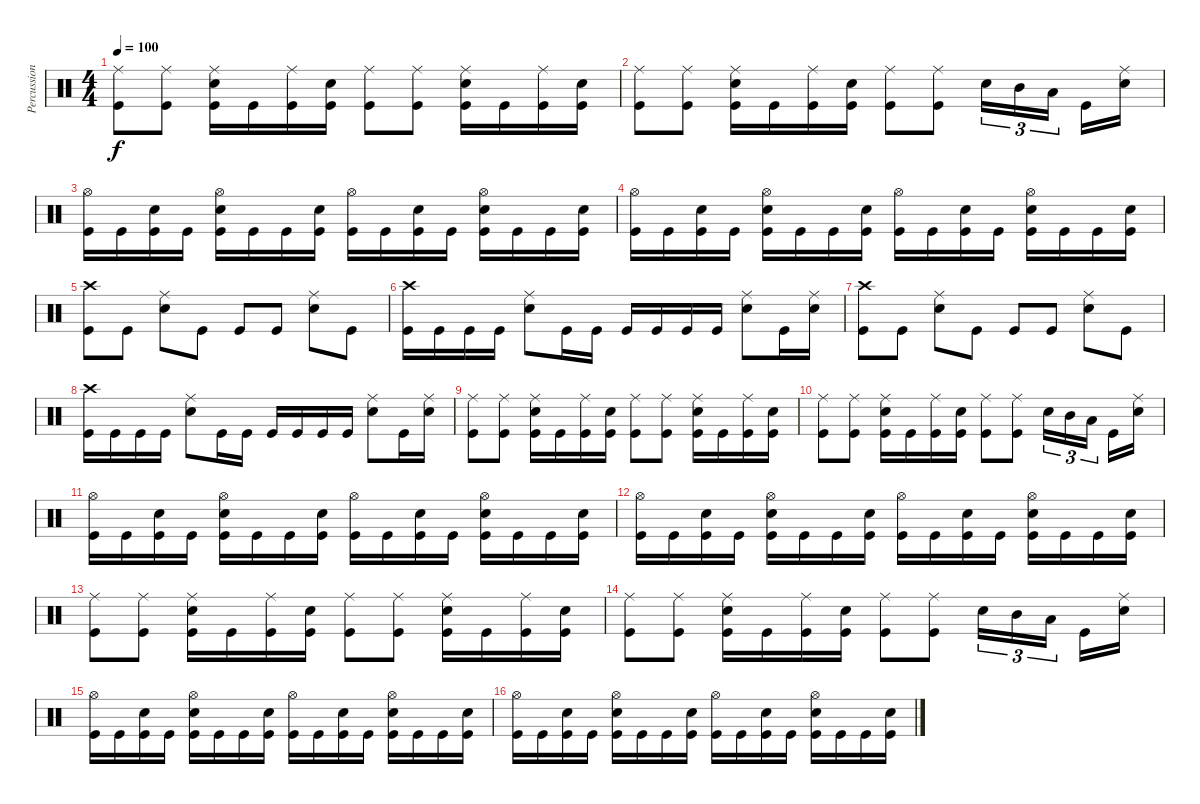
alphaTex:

\track ("Percussion" "Percussion") {instrument percussion}
\staff {score}
\articulation defaults
\ts (4 4)
\tempo 100
\clef neutral
\ks c
("Ride (middle)" "Kick (hit)").8{dy f volume 4} ("Ride (middle)" "Kick (hit)").8 ("Ride (middle)" "Electric Snare (hit)" "Kick (hit)").16 "Kick (hit)".16 ("Ride (middle)" "Kick (hit)").16 ("Electric Snare (hit)" "Kick (hit)").16 ("Ride (middle)" "Kick (hit)").8 ("Ride (middle)" "Kick (hit)").8 ("Ride (middle)" "Electric Snare (hit)" "Kick (hit)").16 "Kick (hit)".16 ("Ride (middle)" "Kick (hit)").16 ("Electric Snare (hit)" "Kick (hit)").16 |
("Ride (middle)" "Kick (hit)").8 ("Ride (middle)" "Kick (hit)").8 ("Ride (middle)" "Electric Snare (hit)" "Kick (hit)").16 "Kick (hit)".16 ("Ride (middle)" "Kick (hit)").16 ("Electric Snare (hit)" "Kick (hit)").16 ("Ride (middle)" "Kick (hit)").8 ("Ride (middle)" "Kick (hit)").8 "Electric Snare (hit)".16{tu (3 2)} "Mid Tom (hit)".16{tu (3 2)} "Low Tom (hit)".16{tu (3 2) beam splitsecondary} "Kick (hit)".16 ("Ride (middle)" "Electric Snare (hit)").16 |
("Hi-Hat (open)" "Kick (hit)").16 "Kick (hit)".16 ("Electric Snare (hit)" "Kick (hit)").16 "Kick (hit)".16 ("Hi-Hat (open)" "Electric Snare (hit)" "Kick (hit)").16 "Kick (hit)".16 "Kick (hit)".16 ("Electric Snare (hit)" "Kick (hit)").16 ("Hi-Hat (open)" "Kick (hit)").16 "Kick (hit)".16 ("Electric Snare (hit)" "Kick (hit)").16 "Kick (hit)".16 ("Hi-Hat (open)" "Electric Snare (hit)" "Kick (hit)").16 "Kick (hit)".16 "Kick (hit)".16 ("Electric Snare (hit)" "Kick (hit)").16 |
("Hi-Hat (open)" "Kick (hit)").16 "Kick (hit)".16 ("Electric Snare (hit)" "Kick (hit)").16 "Kick (hit)".16 ("Hi-Hat (open)" "Electric Snare (hit)" "Kick (hit)").16 "Kick (hit)".16 "Kick (hit)".16 ("Electric Snare (hit)" "Kick (hit)").16 ("Hi-Hat (open)" "Kick (hit)").16 "Kick (hit)".16 ("Electric Snare (hit)" "Kick (hit)").16 "Kick (hit)".16 ("Hi-Hat (open)" "Electric Snare (hit)" "Kick (hit)").16 "Kick (hit)".16 "Kick (hit)".16 ("Electric Snare (hit)" "Kick (hit)").16 |
("Crash high (hit)" "Kick (hit)").8{volume 3} "Kick (hit)".8 ("Ride (middle)" "Electric Snare (hit)").8 "Kick (hit)".8 "Kick (hit)".8 "Kick (hit)".8 ("Ride (middle)" "Electric Snare (hit)").8 "Kick (hit)".8 |
("Crash high (hit)" "Kick (hit)").16 "Kick (hit)".16 "Kick (hit)".16 "Kick (hit)".16 ("Ride (middle)" "Electric Snare (hit)").8 "Kick (hit)".16 "Kick (hit)".16 "Kick (hit)".16 "Kick (hit)".16 "Kick (hit)".16 "Kick (hit)".16 ("Ride (middle)" "Electric Snare (hit)").8 "Kick (hit)".16 ("Ride (middle)" "Electric Snare (hit)").16 |
("Crash high (hit)" "Kick (hit)").8 "Kick (hit)".8 ("Ride (middle)" "Electric Snare (hit)").8 "Kick (hit)".8 "Kick (hit)".8 "Kick (hit)".8 ("Ride (middle)" "Electric Snare (hit)").8 "Kick (hit)".8 |
("Crash high (hit)" "Kick (hit)").16 "Kick (hit)".16 "Kick (hit)".16 "Kick (hit)".16 ("Ride (middle)" "Electric Snare (hit)").8 "Kick (hit)".16 "Kick (hit)".16 "Kick (hit)".16 "Kick (hit)".16 "Kick (hit)".16 "Kick (hit)".16 ("Ride (middle)" "Electric Snare (hit)").8 "Kick (hit)".16 ("Ride (middle)" "Electric Snare (hit)").16 |
("Ride (middle)" "Kick (hit)").8{volume 2} ("Ride (middle)" "Kick (hit)").8 ("Ride (middle)" "Electric Snare (hit)" "Kick (hit)").16 "Kick (hit)".16 ("Ride (middle)" "Kick (hit)").16 ("Electric Snare (hit)" "Kick (hit)").16 ("Ride (middle)" "Kick (hit)").8 ("Ride (middle)" "Kick (hit)").8 ("Ride (middle)" "Electric Snare (hit)" "Kick (hit)").16 "Kick (hit)".16 ("Ride (middle)" "Kick (hit)").16 ("Electric Snare (hit)" "Kick (hit)").16 |
("Ride (middle)" "Kick (hit)").8 ("Ride (middle)" "Kick (hit)").8 ("Ride (middle)" "Electric Snare (hit)" "Kick (hit)").16 "Kick (hit)".16 ("Ride (middle)" "Kick (hit)").16 ("Electric Snare (hit)" "Kick (hit)").16 ("Ride (middle)" "Kick (hit)").8 ("Ride (middle)" "Kick (hit)").8 "Electric Snare (hit)".16{tu (3 2)} "Mid Tom (hit)".16{tu (3 2)} "Low Tom (hit)".16{tu (3 2) beam splitsecondary} "Kick (hit)".16 ("Ride (middle)" "Electric Snare (hit)").16 |
("Hi-Hat (open)" "Kick (hit)").16 "Kick (hit)".16 ("Electric Snare (hit)" "Kick (hit)").16 "Kick (hit)".16 ("Hi-Hat (open)" "Electric Snare (hit)" "Kick (hit)").16 "Kick (hit)".16 "Kick (hit)".16 ("Electric Snare (hit)" "Kick (hit)").16 ("Hi-Hat (open)" "Kick (hit)").16 "Kick (hit)".16 ("Electric Snare (hit)" "Kick (hit)").16 "Kick (hit)".16 ("Hi-Hat (open)" "Electric Snare (hit)" "Kick (hit)").16 "Kick (hit)".16 "Kick (hit)".16 ("Electric Snare (hit)" "Kick (hit)").16 |
("Hi-Hat (open)" "Kick (hit)").16 "Kick (hit)".16 ("Electric Snare (hit)" "Kick (hit)").16 "Kick (hit)".16 ("Hi-Hat (open)" "Electric Snare (hit)" "Kick (hit)").16 "Kick (hit)".16 "Kick (hit)".16 ("Electric Snare (hit)" "Kick (hit)").16 ("Hi-Hat (open)" "Kick (hit)").16 "Kick (hit)".16 ("Electric Snare (hit)" "Kick (hit)").16 "Kick (hit)".16 ("Hi-Hat (open)" "Electric Snare (hit)" "Kick (hit)").16 "Kick (hit)".16 "Kick (hit)".16 ("Electric Snare (hit)" "Kick (hit)").16 |
("Ride (middle)" "Kick (hit)").8{volume 1} ("Ride (middle)" "Kick (hit)").8 ("Ride (middle)" "Electric Snare (hit)" "Kick (hit)").16 "Kick (hit)".16 ("Ride (middle)" "Kick (hit)").16 ("Electric Snare (hit)" "Kick (hit)").16 ("Ride (middle)" "Kick (hit)").8 ("Ride (middle)" "Kick (hit)").8 ("Ride (middle)" "Electric Snare (hit)" "Kick (hit)").16 "Kick (hit)".16 ("Ride (middle)" "Kick (hit)").16 ("Electric Snare (hit)" "Kick (hit)").16 |
("Ride (middle)" "Kick (hit)").8 ("Ride (middle)" "Kick (hit)").8 ("Ride (middle)" "Electric Snare (hit)" "Kick (hit)").16 "Kick (hit)".16 ("Ride (middle)" "Kick (hit)").16 ("Electric Snare (hit)" "Kick (hit)").16 ("Ride (middle)" "Kick (hit)").8 ("Ride (middle)" "Kick (hit)").8 "Electric Snare (hit)".16{tu (3 2)} "Mid Tom (hit)".16{tu (3 2)} "Low Tom (hit)".16{tu (3 2) beam splitsecondary} "Kick (hit)".16 ("Ride (middle)" "Electric Snare (hit)").16 |
("Hi-Hat (open)" "Kick (hit)").16 "Kick (hit)".16 ("Electric Snare (hit)" "Kick (hit)").16 "Kick (hit)".16 ("Hi-Hat (open)" "Electric Snare (hit)" "Kick (hit)").16 "Kick (hit)".16 "Kick (hit)".16 ("Electric Snare (hit)" "Kick (hit)").16 ("Hi-Hat (open)" "Kick (hit)").16 "Kick (hit)".16 ("Electric Snare (hit)" "Kick (hit)").16 "Kick (hit)".16 ("Hi-Hat (open)" "Electric Snare (hit)" "Kick (hit)").16 "Kick (hit)".16 "Kick (hit)".16 ("Electric Snare (hit)" "Kick (hit)").16 |
("Hi-Hat (open)" "Kick (hit)").16 "Kick (hit)".16 ("Electric Snare (hit)" "Kick (hit)").16 "Kick (hit)".16 ("Hi-Hat (open)" "Electric Snare (hit)" "Kick (hit)").16 "Kick (hit)".16 "Kick (hit)".16 ("Electric Snare (hit)" "Kick (hit)").16 ("Hi-Hat (open)" "Kick (hit)").16 "Kick (hit)".16 ("Electric Snare (hit)" "Kick (hit)").16 "Kick (hit)".16 ("Hi-Hat (open)" "Electric Snare (hit)" "Kick (hit)").16 "Kick (hit)".16 "Kick (hit)".16 ("Electric Snare (hit)" "Kick (hit)").16
